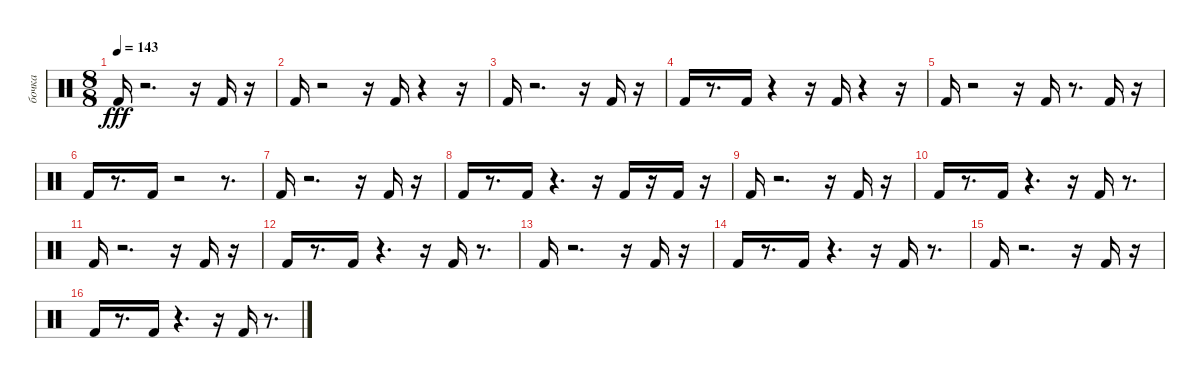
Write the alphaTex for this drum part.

\track ("бочка" "бочка") {instrument percussion}
\staff {score}
\articulation defaults
\ts (8 8)
\tempo 143
\clef neutral
\ks c "Kick (hit) 2".16{dy fff}
r.2{d} r.16 "Kick (hit) 2".16 r.16 |
"Kick (hit) 2".16 r.2 r.16 "Kick (hit) 2".16 r.4 r.16 |
"Kick (hit) 2".16 r.2{d} r.16 "Kick (hit) 2".16 r.16 |
"Kick (hit) 2".16 r.8{d} "Kick (hit) 2".16 r.4 r.16 "Kick (hit) 2".16 r.4 r.16 |
"Kick (hit) 2".16 r.2 r.16 "Kick (hit) 2".16 r.8{d} "Kick (hit) 2".16 r.16 |
"Kick (hit) 2".16 r.8{d} "Kick (hit) 2".16 r.2 r.8{d} |
"Kick (hit) 2".16 r.2{d} r.16 "Kick (hit) 2".16 r.16 |
"Kick (hit) 2".16 r.8{d} "Kick (hit) 2".16 r.4{d} r.16 "Kick (hit) 2".16 r.16 "Kick (hit) 2".16 r.16 |
"Kick (hit) 2".16 r.2{d} r.16 "Kick (hit) 2".16 r.16 |
"Kick (hit) 2".16 r.8{d} "Kick (hit) 2".16 r.4{d} r.16 "Kick (hit) 2".16 r.8{d} |
"Kick (hit) 2".16 r.2{d} r.16 "Kick (hit) 2".16 r.16 |
"Kick (hit) 2".16 r.8{d} "Kick (hit) 2".16 r.4{d} r.16 "Kick (hit) 2".16 r.8{d} |
"Kick (hit) 2".16 r.2{d} r.16 "Kick (hit) 2".16 r.16 |
"Kick (hit) 2".16 r.8{d} "Kick (hit) 2".16 r.4{d} r.16 "Kick (hit) 2".16 r.8{d} |
"Kick (hit) 2".16 r.2{d} r.16 "Kick (hit) 2".16 r.16 |
"Kick (hit) 2".16 r.8{d} "Kick (hit) 2".16 r.4{d} r.16 "Kick (hit) 2".16 r.8{d}
